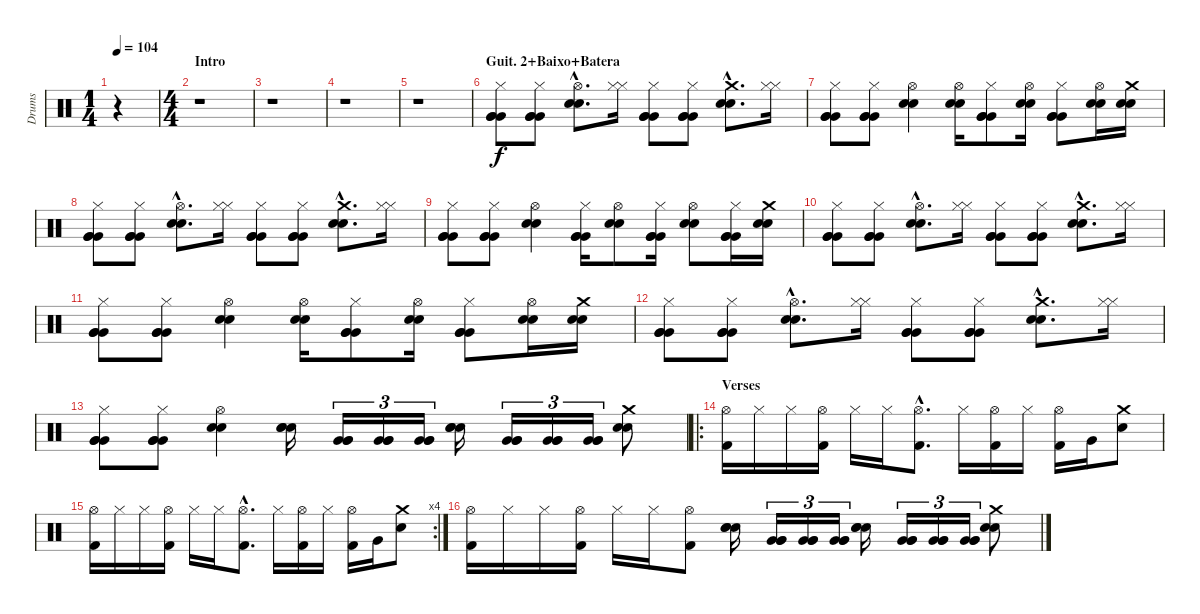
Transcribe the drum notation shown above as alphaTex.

\track ("Drums" "Drums") {instrument percussion}
\staff {score}
\articulation defaults
\ts (1 4)
\tempo 104
\clef neutral
\ks c
r.4{dy f} |
\ts (4 4)
\section ("" "Intro")
r.1 |
r.1 |
r.1 |
r.1 |
\section ("" "Guit. 2+Baixo+Batera")
("Very Low Tom (hit)" "Very Low Tom (hit)" "Hi-Hat (closed)" "Very Low Tom (hit)").8 ("Very Low Tom (hit)" "Very Low Tom (hit)" "Hi-Hat (closed)" "Very Low Tom (hit)").8 ("Hi-Hat (open)"{hac} "Snare (hit) 2"{hac} "Snare (hit) 2"{hac}).8{d} ("Hi-Hat (closed)" "Hi-Hat (closed)").16 ("Very Low Tom (hit)" "Very Low Tom (hit)" "Hi-Hat (closed)" "Very Low Tom (hit)").8 ("Very Low Tom (hit)" "Very Low Tom (hit)" "Hi-Hat (closed)" "Very Low Tom (hit)").8 ("Crash medium (hit)"{hac} "Snare (hit) 2"{hac} "Snare (hit) 2"{hac}).8{d} ("Hi-Hat (closed)" "Hi-Hat (closed)").16 |
("Very Low Tom (hit)" "Very Low Tom (hit)" "Hi-Hat (closed)" "Very Low Tom (hit)").8 ("Very Low Tom (hit)" "Very Low Tom (hit)" "Hi-Hat (closed)" "Very Low Tom (hit)").8 ("Hi-Hat (open)" "Snare (hit) 2" "Snare (hit) 2").4 ("Hi-Hat (open)" "Snare (hit) 2" "Snare (hit) 2").16 ("Very Low Tom (hit)" "Very Low Tom (hit)" "Hi-Hat (closed)" "Very Low Tom (hit)").8 ("Hi-Hat (open)" "Snare (hit) 2" "Snare (hit) 2").16 ("Very Low Tom (hit)" "Very Low Tom (hit)" "Hi-Hat (closed)" "Very Low Tom (hit)").8 ("Hi-Hat (open)" "Snare (hit) 2" "Snare (hit) 2").16 ("Crash medium (hit)" "Snare (hit) 2" "Snare (hit) 2").16 |
("Very Low Tom (hit)" "Very Low Tom (hit)" "Hi-Hat (closed)" "Very Low Tom (hit)").8 ("Very Low Tom (hit)" "Very Low Tom (hit)" "Hi-Hat (closed)" "Very Low Tom (hit)").8 ("Hi-Hat (open)"{hac} "Snare (hit) 2"{hac} "Snare (hit) 2"{hac}).8{d} ("Hi-Hat (closed)" "Hi-Hat (closed)").16 ("Very Low Tom (hit)" "Very Low Tom (hit)" "Hi-Hat (closed)" "Very Low Tom (hit)").8 ("Very Low Tom (hit)" "Very Low Tom (hit)" "Hi-Hat (closed)" "Very Low Tom (hit)").8 ("Crash medium (hit)"{hac} "Snare (hit) 2"{hac} "Snare (hit) 2"{hac}).8{d} ("Hi-Hat (closed)" "Hi-Hat (closed)").16 |
("Very Low Tom (hit)" "Very Low Tom (hit)" "Hi-Hat (closed)" "Very Low Tom (hit)").8 ("Very Low Tom (hit)" "Very Low Tom (hit)" "Hi-Hat (closed)" "Very Low Tom (hit)").8 ("Hi-Hat (open)" "Snare (hit) 2" "Snare (hit) 2").4 ("Very Low Tom (hit)" "Very Low Tom (hit)" "Hi-Hat (closed)" "Very Low Tom (hit)").16 ("Hi-Hat (open)" "Snare (hit) 2" "Snare (hit) 2").8 ("Very Low Tom (hit)" "Very Low Tom (hit)" "Hi-Hat (closed)" "Very Low Tom (hit)").16 ("Hi-Hat (open)" "Snare (hit) 2" "Snare (hit) 2").8 ("Very Low Tom (hit)" "Very Low Tom (hit)" "Hi-Hat (closed)" "Very Low Tom (hit)").16 ("Crash medium (hit)" "Snare (hit) 2" "Snare (hit) 2").16 |
("Very Low Tom (hit)" "Very Low Tom (hit)" "Hi-Hat (closed)" "Very Low Tom (hit)").8 ("Very Low Tom (hit)" "Very Low Tom (hit)" "Hi-Hat (closed)" "Very Low Tom (hit)").8 ("Hi-Hat (open)"{hac} "Snare (hit) 2"{hac} "Snare (hit) 2"{hac}).8{d} ("Hi-Hat (closed)" "Hi-Hat (closed)").16 ("Very Low Tom (hit)" "Very Low Tom (hit)" "Hi-Hat (closed)" "Very Low Tom (hit)").8 ("Very Low Tom (hit)" "Very Low Tom (hit)" "Hi-Hat (closed)" "Very Low Tom (hit)").8 ("Crash medium (hit)"{hac} "Snare (hit) 2"{hac} "Snare (hit) 2"{hac}).8{d} ("Hi-Hat (closed)" "Hi-Hat (closed)").16 |
("Very Low Tom (hit)" "Very Low Tom (hit)" "Hi-Hat (closed)" "Very Low Tom (hit)").8 ("Very Low Tom (hit)" "Very Low Tom (hit)" "Hi-Hat (closed)" "Very Low Tom (hit)").8 ("Hi-Hat (open)" "Snare (hit) 2" "Snare (hit) 2").4 ("Hi-Hat (open)" "Snare (hit) 2" "Snare (hit) 2").16 ("Very Low Tom (hit)" "Very Low Tom (hit)" "Hi-Hat (closed)" "Very Low Tom (hit)").8 ("Hi-Hat (open)" "Snare (hit) 2" "Snare (hit) 2").16 ("Very Low Tom (hit)" "Very Low Tom (hit)" "Hi-Hat (closed)" "Very Low Tom (hit)").8 ("Hi-Hat (open)" "Snare (hit) 2" "Snare (hit) 2").16 ("Crash medium (hit)" "Snare (hit) 2" "Snare (hit) 2").16 |
("Very Low Tom (hit)" "Very Low Tom (hit)" "Hi-Hat (closed)" "Very Low Tom (hit)").8 ("Very Low Tom (hit)" "Very Low Tom (hit)" "Hi-Hat (closed)" "Very Low Tom (hit)").8 ("Hi-Hat (open)"{hac} "Snare (hit) 2"{hac} "Snare (hit) 2"{hac}).8{d} ("Hi-Hat (closed)" "Hi-Hat (closed)").16 ("Very Low Tom (hit)" "Very Low Tom (hit)" "Hi-Hat (closed)" "Very Low Tom (hit)").8 ("Very Low Tom (hit)" "Very Low Tom (hit)" "Hi-Hat (closed)" "Very Low Tom (hit)").8 ("Crash medium (hit)"{hac} "Snare (hit) 2"{hac} "Snare (hit) 2"{hac}).8{d} ("Hi-Hat (closed)" "Hi-Hat (closed)").16 |
("Very Low Tom (hit)" "Very Low Tom (hit)" "Hi-Hat (closed)" "Very Low Tom (hit)").8 ("Very Low Tom (hit)" "Very Low Tom (hit)" "Hi-Hat (closed)" "Very Low Tom (hit)").8 ("Hi-Hat (open)" "Snare (hit) 2" "Snare (hit) 2").4 ("Snare (hit) 2" "Snare (hit) 2" "Snare (hit) 2").16 ("Very Low Tom (hit)" "Very Low Tom (hit)" "Very Low Tom (hit)").16{tu (3 2)} ("Very Low Tom (hit)" "Very Low Tom (hit)" "Very Low Tom (hit)").16{tu (3 2)} ("Very Low Tom (hit)" "Very Low Tom (hit)" "Very Low Tom (hit)").16{tu (3 2)} ("Snare (hit) 2" "Snare (hit) 2" "Snare (hit) 2").16 ("Very Low Tom (hit)" "Very Low Tom (hit)" "Very Low Tom (hit)").16{tu (3 2)} ("Very Low Tom (hit)" "Very Low Tom (hit)" "Very Low Tom (hit)").16{tu (3 2)} ("Very Low Tom (hit)" "Very Low Tom (hit)" "Very Low Tom (hit)").16{tu (3 2)} ("Crash medium (hit)" "Snare (hit) 2" "Snare (hit) 2").8 |
\ro
\section ("" "Verses")
("Hi-Hat (open)" "Kick (hit) 2").16 "Hi-Hat (closed)".16 "Hi-Hat (closed)".16 ("Hi-Hat (open)" "Kick (hit) 2").16 "Hi-Hat (closed)".16 "Hi-Hat (closed)".16 ("Hi-Hat (open)"{hac} "Kick (hit) 2"{hac}).8{d} "Hi-Hat (closed)".16 ("Hi-Hat (open)" "Kick (hit) 2").16 "Hi-Hat (closed)".16 ("Hi-Hat (open)" "Kick (hit) 2").16 "Very Low Tom (hit)".16 ("Crash medium (hit)" "Snare (hit) 2").8 |
\rc 4
("Hi-Hat (open)" "Kick (hit) 2").16 "Hi-Hat (closed)".16 "Hi-Hat (closed)".16 ("Hi-Hat (open)" "Kick (hit) 2").16 "Hi-Hat (closed)".16 "Hi-Hat (closed)".16 ("Hi-Hat (open)"{hac} "Kick (hit) 2"{hac}).8{d} "Hi-Hat (closed)".16 ("Hi-Hat (open)" "Kick (hit) 2").16 "Hi-Hat (closed)".16 ("Hi-Hat (open)" "Kick (hit) 2").16 "Very Low Tom (hit)".16 ("Crash medium (hit)" "Snare (hit) 2").8 |
("Hi-Hat (open)" "Kick (hit) 2").16 "Hi-Hat (closed)".16 "Hi-Hat (closed)".16 ("Hi-Hat (open)" "Kick (hit) 2").16 "Hi-Hat (closed)".16 "Hi-Hat (closed)".16 ("Hi-Hat (open)" "Kick (hit) 2").8 ("Snare (hit) 2" "Snare (hit) 2" "Snare (hit) 2").16 ("Very Low Tom (hit)" "Very Low Tom (hit)" "Very Low Tom (hit)").16{tu (3 2)} ("Very Low Tom (hit)" "Very Low Tom (hit)" "Very Low Tom (hit)").16{tu (3 2)} ("Very Low Tom (hit)" "Very Low Tom (hit)" "Very Low Tom (hit)").16{tu (3 2)} ("Snare (hit) 2" "Snare (hit) 2" "Snare (hit) 2").16 ("Very Low Tom (hit)" "Very Low Tom (hit)" "Very Low Tom (hit)").16{tu (3 2)} ("Very Low Tom (hit)" "Very Low Tom (hit)" "Very Low Tom (hit)").16{tu (3 2)} ("Very Low Tom (hit)" "Very Low Tom (hit)" "Very Low Tom (hit)").16{tu (3 2)} ("Crash medium (hit)" "Snare (hit) 2" "Snare (hit) 2").8
